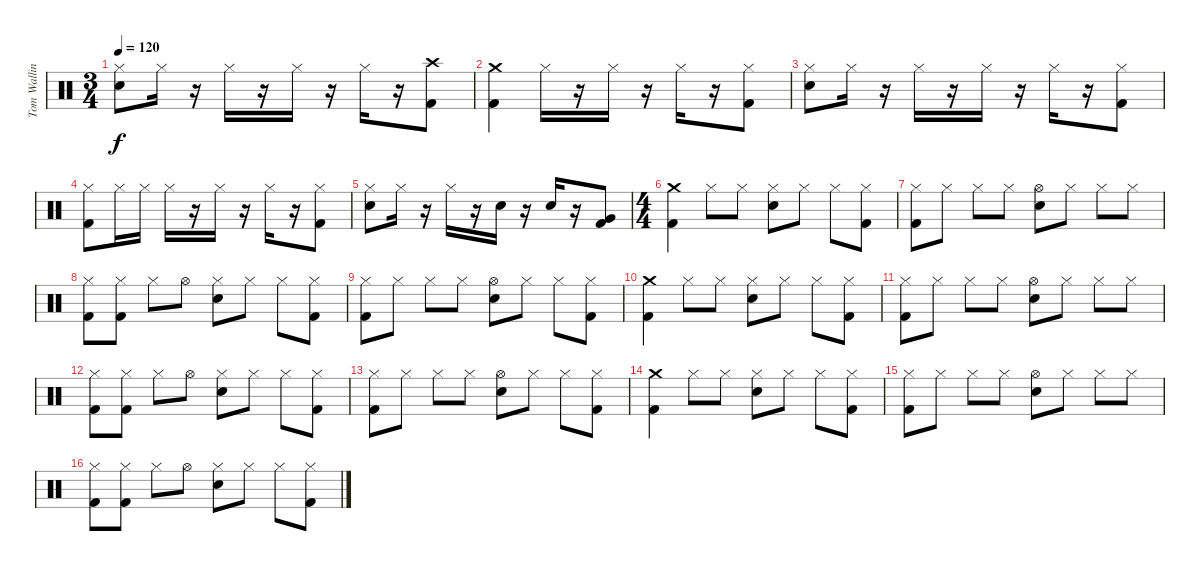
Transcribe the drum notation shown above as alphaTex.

\track ("Tom Walling (Drums)" "Tom Wallin") {instrument percussion}
\staff {score}
\articulation defaults
\ts (3 4)
\tempo 120
\clef neutral
\ks c
("Hi-Hat (closed)" "Electric Snare (hit)").8{dy f} "Hi-Hat (closed)".16 r.16 "Hi-Hat (closed)".16 r.16 "Hi-Hat (closed)".16 r.16 "Hi-Hat (closed)".16 r.16 ("Crash high (hit)" "Kick (hit) 2").8 |
("Crash medium (hit)" "Kick (hit) 2").4 "Hi-Hat (closed)".16 r.16 "Hi-Hat (closed)".16 r.16 "Hi-Hat (closed)".16 r.16 ("Hi-Hat (closed)" "Kick (hit) 2").8 |
("Hi-Hat (closed)" "Electric Snare (hit)").8 "Hi-Hat (closed)".16 r.16 "Hi-Hat (closed)".16 r.16 "Hi-Hat (closed)".16 r.16 "Hi-Hat (closed)".16 r.16 ("Hi-Hat (closed)" "Kick (hit) 2").8 |
("Hi-Hat (closed)" "Kick (hit) 2").8 "Hi-Hat (closed)".16 "Hi-Hat (closed)".16 "Hi-Hat (closed)".16 r.16 "Hi-Hat (closed)".16 r.16 "Hi-Hat (closed)".16 r.16 ("Hi-Hat (closed)" "Kick (hit) 2").8 |
("Hi-Hat (closed)" "Electric Snare (hit)").8 "Hi-Hat (closed)".16 r.16 "Hi-Hat (closed)".16 r.16 "Electric Snare (hit)".16 r.16 "Electric Snare (hit)".16 r.16 ("Very Low Tom (hit)" "Kick (hit) 2").8 |
\ts (4 4)
("Crash medium (hit)" "Kick (hit) 2").4 "Hi-Hat (closed)".8 "Hi-Hat (closed)".8 ("Hi-Hat (closed)" "Electric Snare (hit)").8 "Hi-Hat (closed)".8 "Hi-Hat (closed)".8 ("Hi-Hat (closed)" "Kick (hit) 2").8 |
("Hi-Hat (closed)" "Kick (hit) 2").8 "Hi-Hat (closed)".8 "Hi-Hat (closed)".8 "Hi-Hat (closed)".8 ("Hi-Hat (open)" "Electric Snare (hit)").8 "Hi-Hat (closed)".8 "Hi-Hat (closed)".8 "Hi-Hat (closed)".8 |
("Hi-Hat (closed)" "Kick (hit) 2").8 ("Hi-Hat (closed)" "Kick (hit) 2").8 "Hi-Hat (closed)".8 "Hi-Hat (open)".8 ("Hi-Hat (closed)" "Electric Snare (hit)").8 "Hi-Hat (closed)".8 "Hi-Hat (closed)".8 ("Hi-Hat (closed)" "Kick (hit) 2").8 |
("Hi-Hat (closed)" "Kick (hit) 2").8 "Hi-Hat (closed)".8 "Hi-Hat (closed)".8 "Hi-Hat (closed)".8 ("Hi-Hat (open)" "Electric Snare (hit)").8 "Hi-Hat (closed)".8 "Hi-Hat (closed)".8 ("Hi-Hat (closed)" "Kick (hit) 2").8 |
("Crash medium (hit)" "Kick (hit) 2").4 "Hi-Hat (closed)".8 "Hi-Hat (closed)".8 ("Hi-Hat (closed)" "Electric Snare (hit)").8 "Hi-Hat (closed)".8 "Hi-Hat (closed)".8 ("Hi-Hat (closed)" "Kick (hit) 2").8 |
("Hi-Hat (closed)" "Kick (hit) 2").8 "Hi-Hat (closed)".8 "Hi-Hat (closed)".8 "Hi-Hat (closed)".8 ("Hi-Hat (open)" "Electric Snare (hit)").8 "Hi-Hat (closed)".8 "Hi-Hat (closed)".8 "Hi-Hat (closed)".8 |
("Hi-Hat (closed)" "Kick (hit) 2").8 ("Hi-Hat (closed)" "Kick (hit) 2").8 "Hi-Hat (closed)".8 "Hi-Hat (open)".8 ("Hi-Hat (closed)" "Electric Snare (hit)").8 "Hi-Hat (closed)".8 "Hi-Hat (closed)".8 ("Hi-Hat (closed)" "Kick (hit) 2").8 |
("Hi-Hat (closed)" "Kick (hit) 2").8 "Hi-Hat (closed)".8 "Hi-Hat (closed)".8 "Hi-Hat (closed)".8 ("Hi-Hat (open)" "Electric Snare (hit)").8 "Hi-Hat (closed)".8 "Hi-Hat (closed)".8 ("Hi-Hat (closed)" "Kick (hit) 2").8 |
("Crash medium (hit)" "Kick (hit) 2").4 "Hi-Hat (closed)".8 "Hi-Hat (closed)".8 ("Hi-Hat (closed)" "Electric Snare (hit)").8 "Hi-Hat (closed)".8 "Hi-Hat (closed)".8 ("Hi-Hat (closed)" "Kick (hit) 2").8 |
("Hi-Hat (closed)" "Kick (hit) 2").8 "Hi-Hat (closed)".8 "Hi-Hat (closed)".8 "Hi-Hat (closed)".8 ("Hi-Hat (open)" "Electric Snare (hit)").8 "Hi-Hat (closed)".8 "Hi-Hat (closed)".8 "Hi-Hat (closed)".8 |
("Hi-Hat (closed)" "Kick (hit) 2").8 ("Hi-Hat (closed)" "Kick (hit) 2").8 "Hi-Hat (closed)".8 "Hi-Hat (open)".8 ("Hi-Hat (closed)" "Electric Snare (hit)").8 "Hi-Hat (closed)".8 "Hi-Hat (closed)".8 ("Hi-Hat (closed)" "Kick (hit) 2").8
